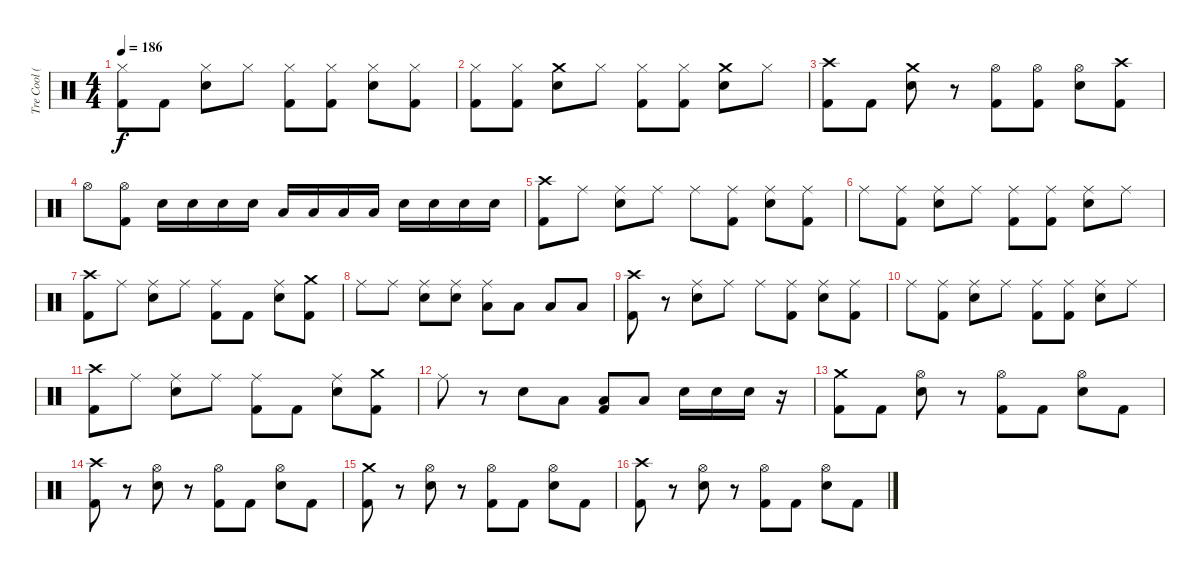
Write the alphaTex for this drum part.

\track ("Tre Cool (Drums)" "Tre Cool (") {instrument percussion}
\staff {score}
\articulation defaults
\ts (4 4)
\tempo 186
\clef neutral
\ks c
("Hi-Hat (closed)" "Kick (hit) 2").8{dy f} "Kick (hit) 2".8 ("Hi-Hat (closed)" "Snare (hit) 2").8 "Hi-Hat (closed)".8 ("Hi-Hat (closed)" "Kick (hit) 2").8 ("Kick (hit) 2" "Hi-Hat (closed)").8 ("Hi-Hat (closed)" "Snare (hit) 2").8 ("Kick (hit) 2" "Hi-Hat (closed)").8 |
("Kick (hit) 2" "Hi-Hat (closed)").8 ("Kick (hit) 2" "Hi-Hat (closed)").8 ("Crash medium (hit)" "Snare (hit) 2").8 "Hi-Hat (closed)".8 ("Kick (hit) 2" "Hi-Hat (closed)").8 ("Kick (hit) 2" "Hi-Hat (closed)").8 ("Crash medium (hit)" "Snare (hit) 2").8 "Hi-Hat (closed)".8 |
("Kick (hit) 2" "Crash high (hit)").8 "Kick (hit) 2".8 ("Snare (hit) 2" "Crash medium (hit)").8 r.8 ("Kick (hit) 2" "Hi-Hat (open)").8 ("Kick (hit) 2" "Hi-Hat (open)").8 ("Snare (hit) 2" "Hi-Hat (open)").8 ("Kick (hit) 2" "Crash high (hit)").8 |
"Hi-Hat (open)".8 ("Kick (hit) 2" "Hi-Hat (open)").8 "Snare (hit) 2".16 "Snare (hit) 2".16 "Snare (hit) 2".16 "Snare (hit) 2".16 "Low Tom (hit)".16 "Low Tom (hit)".16 "Low Tom (hit)".16 "Low Tom (hit)".16 "Snare (hit) 2".16 "Snare (hit) 2".16 "Snare (hit) 2".16 "Snare (hit) 2".16 |
("Crash high (hit)" "Kick (hit) 2").8 "Ride (middle)".8 ("Ride (middle)" "Snare (hit) 2").8 "Ride (middle)".8 "Ride (middle)".8 ("Ride (middle)" "Kick (hit) 2").8 ("Ride (middle)" "Snare (hit) 2").8 ("Ride (middle)" "Kick (hit) 2").8 |
"Ride (middle)".8 ("Kick (hit) 2" "Ride (middle)").8 ("Snare (hit) 2" "Ride (middle)").8 "Ride (middle)".8 ("Kick (hit) 2" "Ride (middle)").8 ("Kick (hit) 2" "Ride (middle)").8 ("Snare (hit) 2" "Ride (middle)").8 "Ride (middle)".8 |
("Kick (hit) 2" "Crash high (hit)").8 "Ride (middle)".8 ("Snare (hit) 2" "Ride (middle)").8 "Ride (middle)".8 ("Kick (hit) 2" "Ride (middle)").8 "Kick (hit) 2".8 ("Snare (hit) 2" "Ride (middle)").8 ("Kick (hit) 2" "Crash medium (hit)").8 |
"Ride (middle)".8 "Ride (middle)".8 ("Ride (middle)" "Snare (hit) 2").8 ("Ride (middle)" "Snare (hit) 2").8 ("Ride (middle)" "Low Floor Tom (hit)").8 "Low Floor Tom (hit)".8 "Low Tom (hit)".8 "Low Tom (hit)".8 |
("Crash high (hit)" "Kick (hit) 2").8 r.8 ("Ride (middle)" "Snare (hit) 2").8 "Ride (middle)".8 "Ride (middle)".8 ("Ride (middle)" "Kick (hit) 2").8 ("Ride (middle)" "Snare (hit) 2").8 ("Ride (middle)" "Kick (hit) 2").8 |
"Ride (middle)".8 ("Ride (middle)" "Kick (hit) 2").8 ("Ride (middle)" "Snare (hit) 2").8 "Ride (middle)".8 ("Ride (middle)" "Kick (hit) 2").8 ("Ride (middle)" "Kick (hit) 2").8 ("Ride (middle)" "Snare (hit) 2").8 "Ride (middle)".8 |
("Crash high (hit)" "Kick (hit) 2").8 "Ride (middle)".8 ("Ride (middle)" "Snare (hit) 2").8 "Ride (middle)".8 ("Ride (middle)" "Kick (hit) 2").8 "Kick (hit) 2".8 ("Ride (middle)" "Snare (hit) 2").8 ("Crash medium (hit)" "Kick (hit) 2").8 |
"Ride (middle)".8 r.8 "Snare (hit) 2".8 "Low Tom (hit)".8 ("Low Floor Tom (hit)" "Kick (hit) 2").8 "Low Tom (hit)".8 "Snare (hit) 2".16 "Snare (hit) 2".16 "Snare (hit) 2".16 r.16 |
("Crash medium (hit)" "Kick (hit) 2").8 "Kick (hit) 2".8 ("Hi-Hat (open)" "Snare (hit) 2").8 r.8 ("Hi-Hat (open)" "Kick (hit) 2").8 "Kick (hit) 2".8 ("Hi-Hat (open)" "Snare (hit) 2").8 "Kick (hit) 2".8 |
("Crash high (hit)" "Kick (hit) 2").8 r.8 ("Hi-Hat (open)" "Snare (hit) 2").8 r.8 ("Hi-Hat (open)" "Kick (hit) 2").8 "Kick (hit) 2".8 ("Hi-Hat (open)" "Snare (hit) 2").8 "Kick (hit) 2".8 |
("Kick (hit) 2" "Crash medium (hit)").8 r.8 ("Snare (hit) 2" "Hi-Hat (open)").8 r.8 ("Kick (hit) 2" "Hi-Hat (open)").8 "Kick (hit) 2".8 ("Snare (hit) 2" "Hi-Hat (open)").8 "Kick (hit) 2".8 |
("Kick (hit) 2" "Crash high (hit)").8 r.8 ("Snare (hit) 2" "Hi-Hat (open)").8 r.8 ("Kick (hit) 2" "Hi-Hat (open)").8 "Kick (hit) 2".8 ("Snare (hit) 2" "Hi-Hat (open)").8 "Kick (hit) 2".8
